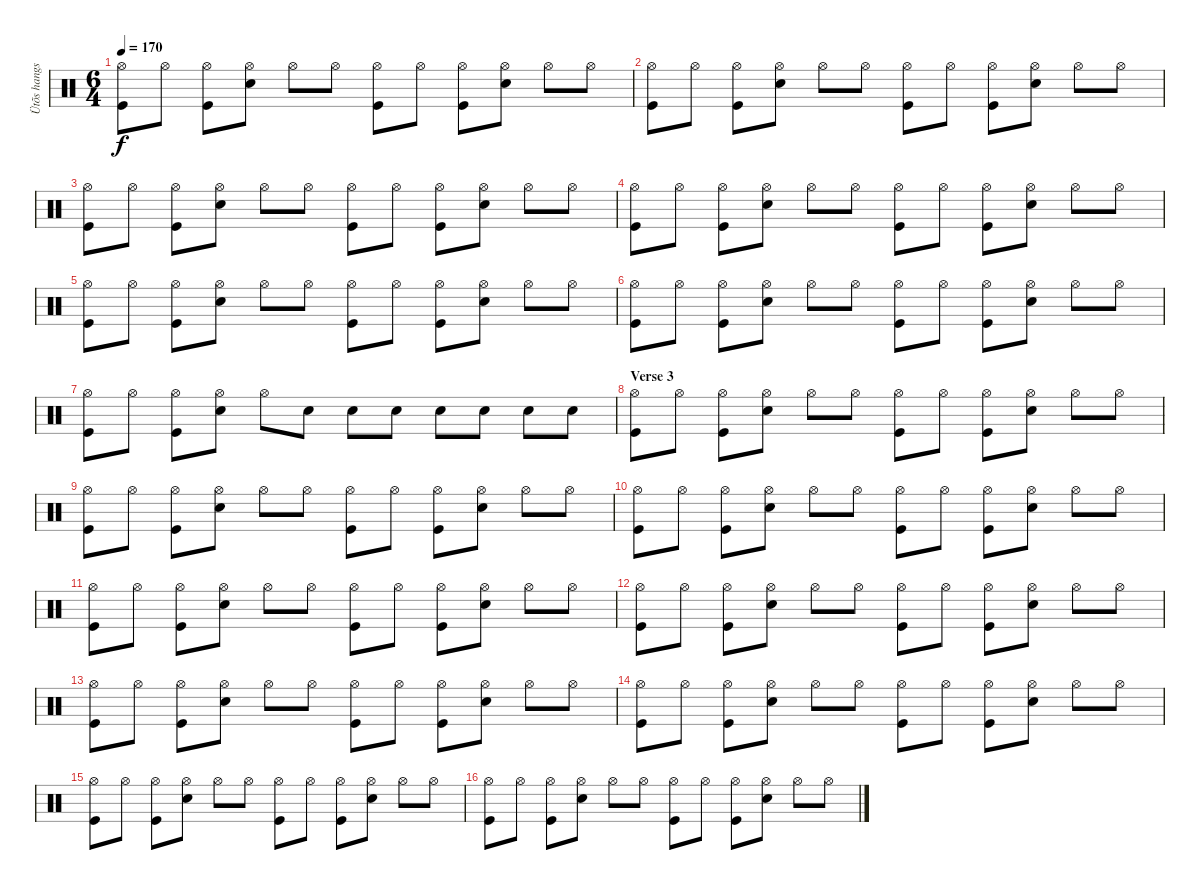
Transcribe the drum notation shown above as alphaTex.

\track ("Ütõs hangszer" "Ütõs hangs") {instrument percussion}
\staff {score}
\articulation defaults
\ts (6 4)
\tempo 170
\clef neutral
\ks c
("Hi-Hat (open)" "Kick (hit)").8{dy f} "Hi-Hat (open)".8 ("Hi-Hat (open)" "Kick (hit)").8 ("Hi-Hat (open)" "Snare (hit) 2").8 "Hi-Hat (open)".8 "Hi-Hat (open)".8 ("Hi-Hat (open)" "Kick (hit)").8 "Hi-Hat (open)".8 ("Hi-Hat (open)" "Kick (hit)").8 ("Hi-Hat (open)" "Snare (hit) 2").8 "Hi-Hat (open)".8 "Hi-Hat (open)".8 |
("Hi-Hat (open)" "Kick (hit)").8 "Hi-Hat (open)".8 ("Hi-Hat (open)" "Kick (hit)").8 ("Hi-Hat (open)" "Snare (hit) 2").8 "Hi-Hat (open)".8 "Hi-Hat (open)".8 ("Hi-Hat (open)" "Kick (hit)").8 "Hi-Hat (open)".8 ("Hi-Hat (open)" "Kick (hit)").8 ("Hi-Hat (open)" "Snare (hit) 2").8 "Hi-Hat (open)".8 "Hi-Hat (open)".8 |
("Hi-Hat (open)" "Kick (hit)").8 "Hi-Hat (open)".8 ("Hi-Hat (open)" "Kick (hit)").8 ("Hi-Hat (open)" "Snare (hit) 2").8 "Hi-Hat (open)".8 "Hi-Hat (open)".8 ("Hi-Hat (open)" "Kick (hit)").8 "Hi-Hat (open)".8 ("Hi-Hat (open)" "Kick (hit)").8 ("Hi-Hat (open)" "Snare (hit) 2").8 "Hi-Hat (open)".8 "Hi-Hat (open)".8 |
("Hi-Hat (open)" "Kick (hit)").8 "Hi-Hat (open)".8 ("Hi-Hat (open)" "Kick (hit)").8 ("Hi-Hat (open)" "Snare (hit) 2").8 "Hi-Hat (open)".8 "Hi-Hat (open)".8 ("Hi-Hat (open)" "Kick (hit)").8 "Hi-Hat (open)".8 ("Hi-Hat (open)" "Kick (hit)").8 ("Hi-Hat (open)" "Snare (hit) 2").8 "Hi-Hat (open)".8 "Hi-Hat (open)".8 |
("Hi-Hat (open)" "Kick (hit)").8 "Hi-Hat (open)".8 ("Hi-Hat (open)" "Kick (hit)").8 ("Hi-Hat (open)" "Snare (hit) 2").8 "Hi-Hat (open)".8 "Hi-Hat (open)".8 ("Hi-Hat (open)" "Kick (hit)").8 "Hi-Hat (open)".8 ("Hi-Hat (open)" "Kick (hit)").8 ("Hi-Hat (open)" "Snare (hit) 2").8 "Hi-Hat (open)".8 "Hi-Hat (open)".8 |
("Hi-Hat (open)" "Kick (hit)").8 "Hi-Hat (open)".8 ("Hi-Hat (open)" "Kick (hit)").8 ("Hi-Hat (open)" "Snare (hit) 2").8 "Hi-Hat (open)".8 "Hi-Hat (open)".8 ("Hi-Hat (open)" "Kick (hit)").8 "Hi-Hat (open)".8 ("Hi-Hat (open)" "Kick (hit)").8 ("Hi-Hat (open)" "Snare (hit) 2").8 "Hi-Hat (open)".8 "Hi-Hat (open)".8 |
("Hi-Hat (open)" "Kick (hit)").8 "Hi-Hat (open)".8 ("Hi-Hat (open)" "Kick (hit)").8 ("Hi-Hat (open)" "Snare (hit) 2").8 "Hi-Hat (open)".8 "Snare (hit) 2".8 "Snare (hit) 2".8 "Snare (hit) 2".8 "Snare (hit) 2".8 "Snare (hit) 2".8 "Snare (hit) 2".8 "Snare (hit) 2".8 |
\section ("" "Verse 3")
("Hi-Hat (open)" "Kick (hit)").8 "Hi-Hat (open)".8 ("Hi-Hat (open)" "Kick (hit)").8 ("Hi-Hat (open)" "Snare (hit) 2").8 "Hi-Hat (open)".8 "Hi-Hat (open)".8 ("Hi-Hat (open)" "Kick (hit)").8 "Hi-Hat (open)".8 ("Hi-Hat (open)" "Kick (hit)").8 ("Hi-Hat (open)" "Snare (hit) 2").8 "Hi-Hat (open)".8 "Hi-Hat (open)".8 |
("Hi-Hat (open)" "Kick (hit)").8 "Hi-Hat (open)".8 ("Hi-Hat (open)" "Kick (hit)").8 ("Hi-Hat (open)" "Snare (hit) 2").8 "Hi-Hat (open)".8 "Hi-Hat (open)".8 ("Hi-Hat (open)" "Kick (hit)").8 "Hi-Hat (open)".8 ("Hi-Hat (open)" "Kick (hit)").8 ("Hi-Hat (open)" "Snare (hit) 2").8 "Hi-Hat (open)".8 "Hi-Hat (open)".8 |
("Hi-Hat (open)" "Kick (hit)").8 "Hi-Hat (open)".8 ("Hi-Hat (open)" "Kick (hit)").8 ("Hi-Hat (open)" "Snare (hit) 2").8 "Hi-Hat (open)".8 "Hi-Hat (open)".8 ("Hi-Hat (open)" "Kick (hit)").8 "Hi-Hat (open)".8 ("Hi-Hat (open)" "Kick (hit)").8 ("Hi-Hat (open)" "Snare (hit) 2").8 "Hi-Hat (open)".8 "Hi-Hat (open)".8 |
("Hi-Hat (open)" "Kick (hit)").8 "Hi-Hat (open)".8 ("Hi-Hat (open)" "Kick (hit)").8 ("Hi-Hat (open)" "Snare (hit) 2").8 "Hi-Hat (open)".8 "Hi-Hat (open)".8 ("Hi-Hat (open)" "Kick (hit)").8 "Hi-Hat (open)".8 ("Hi-Hat (open)" "Kick (hit)").8 ("Hi-Hat (open)" "Snare (hit) 2").8 "Hi-Hat (open)".8 "Hi-Hat (open)".8 |
("Hi-Hat (open)" "Kick (hit)").8 "Hi-Hat (open)".8 ("Hi-Hat (open)" "Kick (hit)").8 ("Hi-Hat (open)" "Snare (hit) 2").8 "Hi-Hat (open)".8 "Hi-Hat (open)".8 ("Hi-Hat (open)" "Kick (hit)").8 "Hi-Hat (open)".8 ("Hi-Hat (open)" "Kick (hit)").8 ("Hi-Hat (open)" "Snare (hit) 2").8 "Hi-Hat (open)".8 "Hi-Hat (open)".8 |
("Hi-Hat (open)" "Kick (hit)").8 "Hi-Hat (open)".8 ("Hi-Hat (open)" "Kick (hit)").8 ("Hi-Hat (open)" "Snare (hit) 2").8 "Hi-Hat (open)".8 "Hi-Hat (open)".8 ("Hi-Hat (open)" "Kick (hit)").8 "Hi-Hat (open)".8 ("Hi-Hat (open)" "Kick (hit)").8 ("Hi-Hat (open)" "Snare (hit) 2").8 "Hi-Hat (open)".8 "Hi-Hat (open)".8 |
("Hi-Hat (open)" "Kick (hit)").8 "Hi-Hat (open)".8 ("Hi-Hat (open)" "Kick (hit)").8 ("Hi-Hat (open)" "Snare (hit) 2").8 "Hi-Hat (open)".8 "Hi-Hat (open)".8 ("Hi-Hat (open)" "Kick (hit)").8 "Hi-Hat (open)".8 ("Hi-Hat (open)" "Kick (hit)").8 ("Hi-Hat (open)" "Snare (hit) 2").8 "Hi-Hat (open)".8 "Hi-Hat (open)".8 |
("Hi-Hat (open)" "Kick (hit)").8 "Hi-Hat (open)".8 ("Hi-Hat (open)" "Kick (hit)").8 ("Hi-Hat (open)" "Snare (hit) 2").8 "Hi-Hat (open)".8 "Hi-Hat (open)".8 ("Hi-Hat (open)" "Kick (hit)").8 "Hi-Hat (open)".8 ("Hi-Hat (open)" "Kick (hit)").8 ("Hi-Hat (open)" "Snare (hit) 2").8 "Hi-Hat (open)".8 "Hi-Hat (open)".8 |
("Hi-Hat (open)" "Kick (hit)").8 "Hi-Hat (open)".8 ("Hi-Hat (open)" "Kick (hit)").8 ("Hi-Hat (open)" "Snare (hit) 2").8 "Hi-Hat (open)".8 "Hi-Hat (open)".8 ("Hi-Hat (open)" "Kick (hit)").8 "Hi-Hat (open)".8 ("Hi-Hat (open)" "Kick (hit)").8 ("Hi-Hat (open)" "Snare (hit) 2").8 "Hi-Hat (open)".8 "Hi-Hat (open)".8
